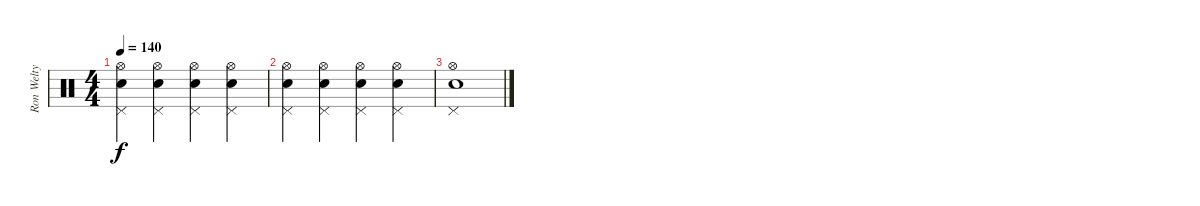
\track ("Ron Welty - Bateria" "Ron Welty ") {instrument percussion}
\staff {score}
\articulation defaults
\ts (4 4)
\tempo 140
\clef neutral
\ks c
("Electric Snare (hit)" "Pedal Hi-Hat (hit)" "Hi-Hat (open)").4{dy f} ("Electric Snare (hit)" "Pedal Hi-Hat (hit)" "Hi-Hat (open)").4 ("Pedal Hi-Hat (hit)" "Electric Snare (hit)" "Hi-Hat (open)").4 ("Pedal Hi-Hat (hit)" "Electric Snare (hit)" "Hi-Hat (open)").4 |
("Pedal Hi-Hat (hit)" "Electric Snare (hit)" "Hi-Hat (open)").4 ("Pedal Hi-Hat (hit)" "Electric Snare (hit)" "Hi-Hat (open)").4 ("Pedal Hi-Hat (hit)" "Electric Snare (hit)" "Hi-Hat (open)").4 ("Pedal Hi-Hat (hit)" "Electric Snare (hit)" "Hi-Hat (open)").4 |
("Pedal Hi-Hat (hit)" "Electric Snare (hit)" "Hi-Hat (open)").1
